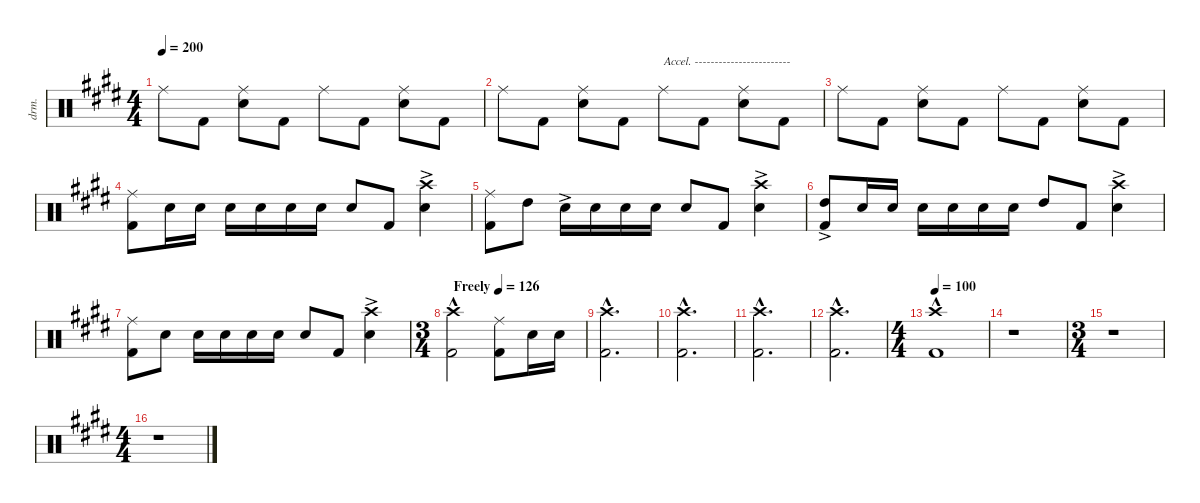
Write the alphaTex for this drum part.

\defaultSystemsLayout 4
\hideDynamics
\bracketExtendMode nobrackets
\otherSystemsTrackNameOrientation horizontal
\track ("Mitch" "drm.") {instrument percussion}
\staff {score}
\articulation defaults
\ts (4 4)
\tempo 200
\clef neutral
\ks e "Ride (middle)"{acc forcenatural}.8{dy f beam Down} "Kick (hit) 2"{acc forcenatural}.8{beam Down}
("Ride (middle)"{acc forcenatural} "Snare (hit) 2"{acc forcenatural}).8{beam Down} "Kick (hit) 2"{acc forcenatural}.8{beam Down} "Ride (middle)"{acc forcenatural}.8{beam Down} "Kick (hit) 2"{acc forcenatural}.8{beam Down} ("Ride (middle)"{acc forcenatural} "Snare (hit) 2"{acc forcenatural}).8{beam Down} "Kick (hit) 2"{acc forcenatural}.8{beam Down} |
"Ride (middle)"{acc forcenatural}.8{beam Down} "Kick (hit) 2"{acc forcenatural}.8{beam Down} ("Ride (middle)"{acc forcenatural} "Snare (hit) 2"{acc forcenatural}).8{beam Down} "Kick (hit) 2"{acc forcenatural}.8{beam Down} "Ride (middle)"{acc forcenatural}.8{txt "Accel. ------------------------" beam Down} "Kick (hit) 2"{acc forcenatural}.8{beam Down} ("Ride (middle)"{acc forcenatural} "Snare (hit) 2"{acc forcenatural}).8{beam Down} "Kick (hit) 2"{acc forcenatural}.8{beam Down} |
"Ride (middle)"{acc forcenatural}.8{beam Down} "Kick (hit) 2"{acc forcenatural}.8{beam Down} ("Ride (middle)"{acc forcenatural} "Snare (hit) 2"{acc forcenatural}).8{beam Down} "Kick (hit) 2"{acc forcenatural}.8{beam Down} "Ride (middle)"{acc forcenatural}.8{beam Down} "Kick (hit) 2"{acc forcenatural}.8{beam Down} ("Ride (middle)"{acc forcenatural} "Snare (hit) 2"{acc forcenatural}).8{beam Down} "Kick (hit) 2"{acc forcenatural}.8{beam Down} |
("Ride (middle)"{acc forcenatural} "Kick (hit) 2"{acc forcenatural}).8{beam Down} "Snare (hit) 2"{acc forcenatural}.16{beam Down} "Snare (hit) 2"{acc forcenatural}.16{beam Down} "Snare (hit) 2"{acc forcenatural}.16{beam Down} "Snare (hit) 2"{acc forcenatural}.16{beam Down} "Snare (hit) 2"{acc forcenatural}.16{beam Down} "Snare (hit) 2"{acc forcenatural}.16{beam Down} "Snare (hit) 2"{acc forcenatural}.8{beam Up} "Kick (hit) 2"{acc forcenatural}.8{beam Up} ("Crash high (hit)"{ac acc forcenatural} "Snare (hit) 2"{acc forcenatural}).4{beam Down} |
("Ride (middle)"{acc forcenatural} "Kick (hit) 2"{acc forcenatural}).8{beam Down} "High Tom (hit)"{acc forcenatural}.8{beam Down} "Snare (hit) 2"{ac acc forcenatural}.16{beam Down} "Snare (hit) 2"{acc forcenatural}.16{beam Down} "Snare (hit) 2"{acc forcenatural}.16{beam Down} "Snare (hit) 2"{acc forcenatural}.16{beam Down} "Snare (hit) 2"{acc forcenatural}.8{beam Up} "Kick (hit) 2"{acc forcenatural}.8{beam Up} ("Crash high (hit)"{ac acc forcenatural} "Snare (hit) 2"{acc forcenatural}).4{beam Down} |
("High Tom (hit)"{ac acc forcenatural} "Kick (hit) 2"{acc forcenatural}).8{beam Up} "Snare (hit) 2"{acc forcenatural}.16{beam Up} "Snare (hit) 2"{acc forcenatural}.16{beam Up} "Snare (hit) 2"{acc forcenatural}.16{beam Down} "Snare (hit) 2"{acc forcenatural}.16{beam Down} "Snare (hit) 2"{acc forcenatural}.16{beam Down} "Snare (hit) 2"{acc forcenatural}.16{beam Down} "High Tom (hit)"{acc forcenatural}.8{beam Up} "Kick (hit) 2"{acc forcenatural}.8{beam Up} ("Crash high (hit)"{ac acc forcenatural} "Snare (hit) 2"{acc forcenatural}).4{beam Down} |
("Ride (middle)"{acc forcenatural} "Kick (hit) 2"{acc forcenatural}).8{beam Down} "Snare (hit) 2"{acc forcenatural}.8{beam Down} "Snare (hit) 2"{acc forcenatural}.16{beam Down} "Snare (hit) 2"{acc forcenatural}.16{beam Down} "Snare (hit) 2"{acc forcenatural}.16{beam Down} "Snare (hit) 2"{acc forcenatural}.16{beam Down} "Snare (hit) 2"{acc forcenatural}.8{beam Up} "Kick (hit) 2"{acc forcenatural}.8{beam Up} ("Crash high (hit)"{ac acc forcenatural} "Snare (hit) 2"{acc forcenatural}).4{beam Down} |
\ts (3 4)
\beaming (8 2 2 2)
\tempo (126 "Freely")
("Crash high (hit)"{hac acc forcenatural} "Kick (hit) 2"{acc forcenatural}).2{beam Down} ("Ride (middle)"{acc forcenatural} "Kick (hit) 2"{acc forcenatural}).8{beam Down} "Snare (hit) 2"{acc forcenatural}.16{beam Down} "Snare (hit) 2"{acc forcenatural}.16{beam Down} |
("Crash high (hit)"{hac acc forcenatural} "Kick (hit) 2"{acc forcenatural}).2{d beam Down} |
("Crash high (hit)"{hac acc forcenatural} "Kick (hit) 2"{acc forcenatural}).2{d beam Down} |
("Crash high (hit)"{hac acc forcenatural} "Kick (hit) 2"{acc forcenatural}).2{d beam Down} |
("Crash high (hit)"{hac acc forcenatural} "Kick (hit) 2"{acc forcenatural}).2{d beam Down} |
\ts (4 4)
\beaming (8 2 2 2 2)
\tempo 100
("Crash high (hit)"{hac acc forcenatural} "Kick (hit) 2"{acc forcenatural}).1{beam Down} |
r.1{beam Down} |
\ts (3 4)
\beaming (8 2 2 2)
r.1{beam Down} |
\ts (4 4)
\beaming (8 2 2 2 2)
r.1{beam Down}
